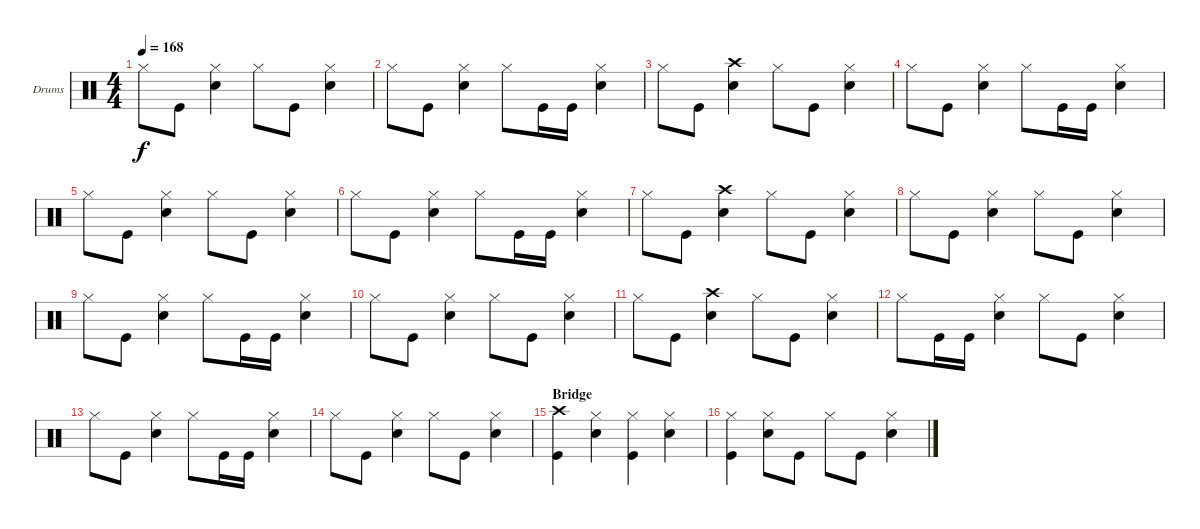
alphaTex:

\bracketExtendMode groupsimilarinstruments
\firstSystemTrackNameOrientation horizontal
\otherSystemsTrackNameOrientation horizontal
\track ("Drums" "Drums") {instrument percussion}
\staff {score}
\articulation defaults
\ts (4 4)
\tempo 168
\clef neutral
\ks c "Hi-Hat (closed)".8{dy f} "Kick (hit)".8
("Snare (hit) 2" "Hi-Hat (closed)").4 "Hi-Hat (closed)".8 "Kick (hit)".8 ("Snare (hit) 2" "Hi-Hat (closed)").4 |
"Hi-Hat (closed)".8 "Kick (hit)".8 ("Snare (hit) 2" "Hi-Hat (closed)").4 "Hi-Hat (closed)".8 "Kick (hit)".16 "Kick (hit)".16 ("Snare (hit) 2" "Hi-Hat (closed)").4 |
"Hi-Hat (closed)".8 "Kick (hit)".8 ("Crash high (hit)" "Snare (hit) 2").4 "Hi-Hat (closed)".8 "Kick (hit)".8 ("Snare (hit) 2" "Hi-Hat (closed)").4 |
"Hi-Hat (closed)".8 "Kick (hit)".8 ("Snare (hit) 2" "Hi-Hat (closed)").4 "Hi-Hat (closed)".8 "Kick (hit)".16 "Kick (hit)".16 ("Snare (hit) 2" "Hi-Hat (closed)").4 |
"Hi-Hat (closed)".8 "Kick (hit)".8 ("Snare (hit) 2" "Hi-Hat (closed)").4 "Hi-Hat (closed)".8 "Kick (hit)".8 ("Snare (hit) 2" "Hi-Hat (closed)").4 |
"Hi-Hat (closed)".8 "Kick (hit)".8 ("Snare (hit) 2" "Hi-Hat (closed)").4 "Hi-Hat (closed)".8 "Kick (hit)".16 "Kick (hit)".16 ("Snare (hit) 2" "Hi-Hat (closed)").4 |
"Hi-Hat (closed)".8 "Kick (hit)".8 ("Crash high (hit)" "Snare (hit) 2").4 "Hi-Hat (closed)".8 "Kick (hit)".8 ("Snare (hit) 2" "Hi-Hat (closed)").4 |
"Hi-Hat (closed)".8 "Kick (hit)".8 ("Snare (hit) 2" "Hi-Hat (closed)").4 "Hi-Hat (closed)".8 "Kick (hit)".8 ("Snare (hit) 2" "Hi-Hat (closed)").4 |
"Hi-Hat (closed)".8 "Kick (hit)".8 ("Snare (hit) 2" "Hi-Hat (closed)").4 "Hi-Hat (closed)".8 "Kick (hit)".16 "Kick (hit)".16 ("Snare (hit) 2" "Hi-Hat (closed)").4 |
"Hi-Hat (closed)".8 "Kick (hit)".8 ("Snare (hit) 2" "Hi-Hat (closed)").4 "Hi-Hat (closed)".8 "Kick (hit)".8 ("Snare (hit) 2" "Hi-Hat (closed)").4 |
"Hi-Hat (closed)".8 "Kick (hit)".8 ("Crash high (hit)" "Snare (hit) 2").4 "Hi-Hat (closed)".8 "Kick (hit)".8 ("Snare (hit) 2" "Hi-Hat (closed)").4 |
"Hi-Hat (closed)".8 "Kick (hit)".16 "Kick (hit)".16 ("Snare (hit) 2" "Hi-Hat (closed)").4 "Hi-Hat (closed)".8 "Kick (hit)".8 ("Snare (hit) 2" "Hi-Hat (closed)").4 |
"Hi-Hat (closed)".8 "Kick (hit)".8 ("Snare (hit) 2" "Hi-Hat (closed)").4 "Hi-Hat (closed)".8 "Kick (hit)".16 "Kick (hit)".16 ("Snare (hit) 2" "Hi-Hat (closed)").4 |
"Hi-Hat (closed)".8 "Kick (hit)".8 ("Snare (hit) 2" "Hi-Hat (closed)").4 "Hi-Hat (closed)".8 "Kick (hit)".8 ("Snare (hit) 2" "Hi-Hat (closed)").4 |
\section ("" "Bridge")
("Kick (hit)" "Crash high (hit)").4 ("Hi-Hat (closed)" "Snare (hit) 2").4 ("Hi-Hat (closed)" "Kick (hit)").4 ("Snare (hit) 2" "Hi-Hat (closed)").4 |
("Hi-Hat (closed)" "Kick (hit)").4 ("Snare (hit) 2" "Hi-Hat (closed)").8 "Kick (hit)".8 "Hi-Hat (closed)".8 "Kick (hit)".8 ("Snare (hit) 2" "Hi-Hat (closed)").4
